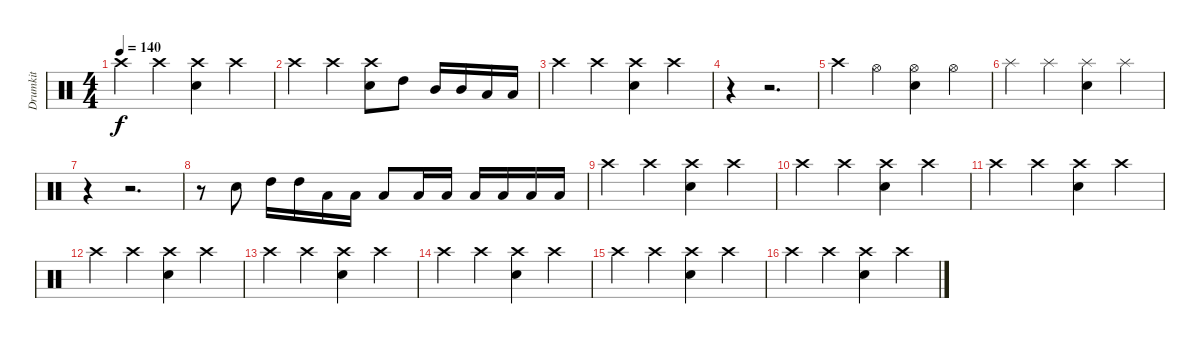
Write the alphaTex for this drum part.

\track ("Drumkit" "Drumkit") {instrument percussion}
\staff {score}
\articulation defaults
\ts (4 4)
\tempo 140
\clef neutral
\ks c "Crash high (hit)".4{dy f} "Crash high (hit)".4
("Snare (hit) 2" "Crash high (hit)").4 "Crash high (hit)".4 |
"Crash high (hit)".4 "Crash high (hit)".4 ("Snare (hit) 2" "Crash high (hit)").8 "High Tom (hit)".8 "Mid Tom (hit)".16 "Mid Tom (hit)".16 "Low Floor Tom (hit)".16 "Low Floor Tom (hit)".16 |
"Crash high (hit)".4 "Crash high (hit)".4 ("Crash high (hit)" "Snare (hit) 2").4 "Crash high (hit)".4 |
r.4 r.2{d} |
"Crash high (hit)".4 "Hi-Hat (open)".4 ("Snare (hit) 2" "Hi-Hat (open)").4 "Hi-Hat (open)".4 |
"Splash (hit)".4 "Splash (hit)".4 ("Splash (hit)" "Snare (hit) 2").4 "Splash (hit)".4 |
r.4 r.2{d} |
r.8 "Snare (hit) 2".8 "High Tom (hit)".16 "High Tom (hit)".16 "Low Tom (hit)".16 "Low Tom (hit)".16 "Low Tom (hit)".8 "Low Floor Tom (hit)".16 "Low Floor Tom (hit)".16 "Low Floor Tom (hit)".16 "Low Floor Tom (hit)".16 "Low Floor Tom (hit)".16 "Low Floor Tom (hit)".16 |
"Crash high (hit)".4 "Crash high (hit)".4 ("Crash high (hit)" "Snare (hit) 2").4 "Crash high (hit)".4 |
"Crash high (hit)".4 "Crash high (hit)".4 ("Crash high (hit)" "Snare (hit) 2").4 "Crash high (hit)".4 |
"Crash high (hit)".4 "Crash high (hit)".4 ("Crash high (hit)" "Snare (hit) 2").4 "Crash high (hit)".4 |
"Crash high (hit)".4 "Crash high (hit)".4 ("Crash high (hit)" "Snare (hit) 2").4 "Crash high (hit)".4 |
"Crash high (hit)".4 "Crash high (hit)".4 ("Crash high (hit)" "Snare (hit) 2").4 "Crash high (hit)".4 |
"Crash high (hit)".4 "Crash high (hit)".4 ("Crash high (hit)" "Snare (hit) 2").4 "Crash high (hit)".4 |
"Crash high (hit)".4 "Crash high (hit)".4 ("Crash high (hit)" "Snare (hit) 2").4 "Crash high (hit)".4 |
"Crash high (hit)".4 "Crash high (hit)".4 ("Crash high (hit)" "Snare (hit) 2").4 "Crash high (hit)".4
